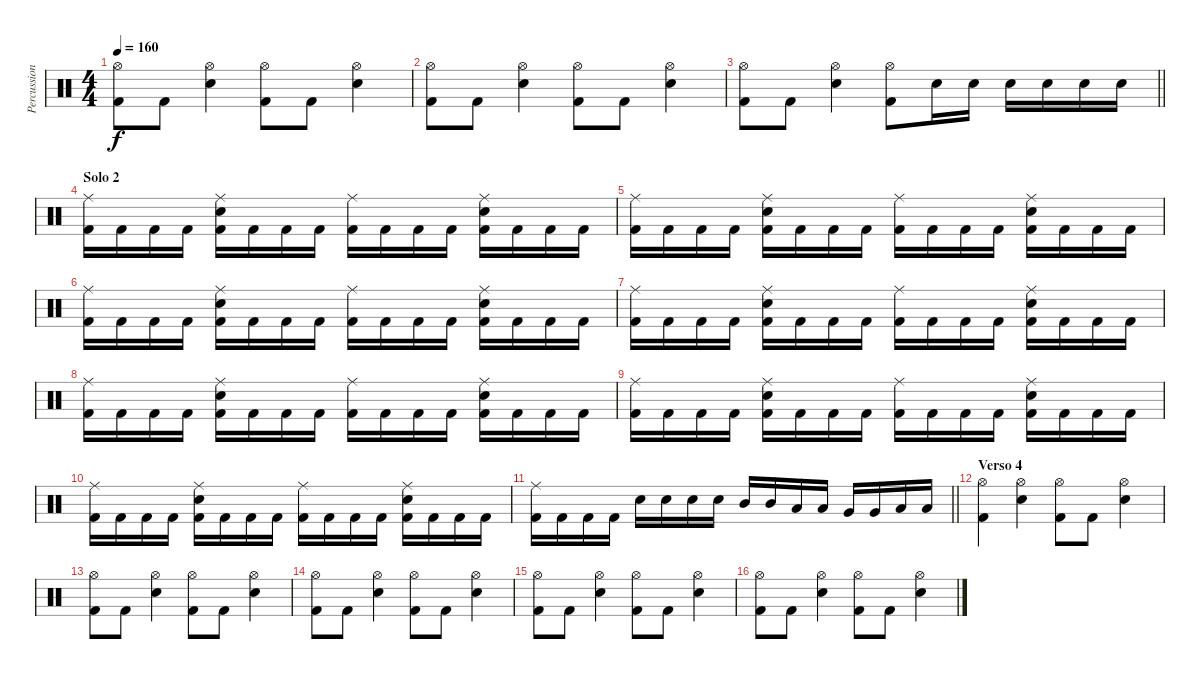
\track ("Percussion" "Percussion") {instrument percussion}
\staff {score}
\articulation defaults
\ts (4 4)
\tempo 160
\clef neutral
\ks c
("Hi-Hat (open)" "Kick (hit) 2").8{dy f} "Kick (hit) 2".8 ("Hi-Hat (open)" "Snare (hit) 2").4 ("Hi-Hat (open)" "Kick (hit) 2").8 "Kick (hit) 2".8 ("Hi-Hat (open)" "Snare (hit) 2").4 |
("Hi-Hat (open)" "Kick (hit) 2").8 "Kick (hit) 2".8 ("Hi-Hat (open)" "Snare (hit) 2").4 ("Hi-Hat (open)" "Kick (hit) 2").8 "Kick (hit) 2".8 ("Hi-Hat (open)" "Snare (hit) 2").4 |
\barLineRight lightlight
("Hi-Hat (open)" "Kick (hit) 2").8 "Kick (hit) 2".8 ("Hi-Hat (open)" "Snare (hit) 2").4 ("Hi-Hat (open)" "Kick (hit) 2").8 "Snare (hit) 2".16 "Snare (hit) 2".16 "Snare (hit) 2".16 "Snare (hit) 2".16 "Snare (hit) 2".16 "Snare (hit) 2".16 |
\section ("" "Solo 2")
("Ride (middle)" "Kick (hit) 2").16 "Kick (hit) 2".16 "Kick (hit) 2".16 "Kick (hit) 2".16 ("Ride (middle)" "Snare (hit) 2" "Kick (hit) 2").16 "Kick (hit) 2".16 "Kick (hit) 2".16 "Kick (hit) 2".16 ("Ride (middle)" "Kick (hit) 2").16 "Kick (hit) 2".16 "Kick (hit) 2".16 "Kick (hit) 2".16 ("Ride (middle)" "Snare (hit) 2" "Kick (hit) 2").16 "Kick (hit) 2".16 "Kick (hit) 2".16 "Kick (hit) 2".16 |
("Ride (middle)" "Kick (hit) 2").16 "Kick (hit) 2".16 "Kick (hit) 2".16 "Kick (hit) 2".16 ("Ride (middle)" "Snare (hit) 2" "Kick (hit) 2").16 "Kick (hit) 2".16 "Kick (hit) 2".16 "Kick (hit) 2".16 ("Ride (middle)" "Kick (hit) 2").16 "Kick (hit) 2".16 "Kick (hit) 2".16 "Kick (hit) 2".16 ("Ride (middle)" "Snare (hit) 2" "Kick (hit) 2").16 "Kick (hit) 2".16 "Kick (hit) 2".16 "Kick (hit) 2".16 |
("Ride (middle)" "Kick (hit) 2").16 "Kick (hit) 2".16 "Kick (hit) 2".16 "Kick (hit) 2".16 ("Ride (middle)" "Snare (hit) 2" "Kick (hit) 2").16 "Kick (hit) 2".16 "Kick (hit) 2".16 "Kick (hit) 2".16 ("Ride (middle)" "Kick (hit) 2").16 "Kick (hit) 2".16 "Kick (hit) 2".16 "Kick (hit) 2".16 ("Ride (middle)" "Snare (hit) 2" "Kick (hit) 2").16 "Kick (hit) 2".16 "Kick (hit) 2".16 "Kick (hit) 2".16 |
("Ride (middle)" "Kick (hit) 2").16 "Kick (hit) 2".16 "Kick (hit) 2".16 "Kick (hit) 2".16 ("Ride (middle)" "Snare (hit) 2" "Kick (hit) 2").16 "Kick (hit) 2".16 "Kick (hit) 2".16 "Kick (hit) 2".16 ("Ride (middle)" "Kick (hit) 2").16 "Kick (hit) 2".16 "Kick (hit) 2".16 "Kick (hit) 2".16 ("Ride (middle)" "Snare (hit) 2" "Kick (hit) 2").16 "Kick (hit) 2".16 "Kick (hit) 2".16 "Kick (hit) 2".16 |
("Ride (middle)" "Kick (hit) 2").16 "Kick (hit) 2".16 "Kick (hit) 2".16 "Kick (hit) 2".16 ("Ride (middle)" "Snare (hit) 2" "Kick (hit) 2").16 "Kick (hit) 2".16 "Kick (hit) 2".16 "Kick (hit) 2".16 ("Ride (middle)" "Kick (hit) 2").16 "Kick (hit) 2".16 "Kick (hit) 2".16 "Kick (hit) 2".16 ("Ride (middle)" "Snare (hit) 2" "Kick (hit) 2").16 "Kick (hit) 2".16 "Kick (hit) 2".16 "Kick (hit) 2".16 |
("Ride (middle)" "Kick (hit) 2").16 "Kick (hit) 2".16 "Kick (hit) 2".16 "Kick (hit) 2".16 ("Ride (middle)" "Snare (hit) 2" "Kick (hit) 2").16 "Kick (hit) 2".16 "Kick (hit) 2".16 "Kick (hit) 2".16 ("Ride (middle)" "Kick (hit) 2").16 "Kick (hit) 2".16 "Kick (hit) 2".16 "Kick (hit) 2".16 ("Ride (middle)" "Snare (hit) 2" "Kick (hit) 2").16 "Kick (hit) 2".16 "Kick (hit) 2".16 "Kick (hit) 2".16 |
("Ride (middle)" "Kick (hit) 2").16 "Kick (hit) 2".16 "Kick (hit) 2".16 "Kick (hit) 2".16 ("Ride (middle)" "Snare (hit) 2" "Kick (hit) 2").16 "Kick (hit) 2".16 "Kick (hit) 2".16 "Kick (hit) 2".16 ("Ride (middle)" "Kick (hit) 2").16 "Kick (hit) 2".16 "Kick (hit) 2".16 "Kick (hit) 2".16 ("Ride (middle)" "Snare (hit) 2" "Kick (hit) 2").16 "Kick (hit) 2".16 "Kick (hit) 2".16 "Kick (hit) 2".16 |
\barLineRight lightlight
("Ride (middle)" "Kick (hit) 2").16 "Kick (hit) 2".16 "Kick (hit) 2".16 "Kick (hit) 2".16 "Snare (hit) 2".16 "Snare (hit) 2".16 "Snare (hit) 2".16 "Snare (hit) 2".16 "Mid Tom (hit)".16 "Mid Tom (hit)".16 "Low Tom (hit)".16 "Low Tom (hit)".16 "Very Low Tom (hit)".16 "Very Low Tom (hit)".16 "Low Floor Tom (hit)".16 "Low Floor Tom (hit)".16 |
\section ("" "Verso 4")
("Hi-Hat (open)" "Kick (hit) 2").4 ("Hi-Hat (open)" "Snare (hit) 2").4 ("Hi-Hat (open)" "Kick (hit) 2").8 "Kick (hit) 2".8 ("Hi-Hat (open)" "Snare (hit) 2").4 |
("Hi-Hat (open)" "Kick (hit) 2").8 "Kick (hit) 2".8 ("Hi-Hat (open)" "Snare (hit) 2").4 ("Hi-Hat (open)" "Kick (hit) 2").8 "Kick (hit) 2".8 ("Hi-Hat (open)" "Snare (hit) 2").4 |
("Hi-Hat (open)" "Kick (hit) 2").8 "Kick (hit) 2".8 ("Hi-Hat (open)" "Snare (hit) 2").4 ("Hi-Hat (open)" "Kick (hit) 2").8 "Kick (hit) 2".8 ("Hi-Hat (open)" "Snare (hit) 2").4 |
("Hi-Hat (open)" "Kick (hit) 2").8 "Kick (hit) 2".8 ("Hi-Hat (open)" "Snare (hit) 2").4 ("Hi-Hat (open)" "Kick (hit) 2").8 "Kick (hit) 2".8 ("Hi-Hat (open)" "Snare (hit) 2").4 |
("Hi-Hat (open)" "Kick (hit) 2").8 "Kick (hit) 2".8 ("Hi-Hat (open)" "Snare (hit) 2").4 ("Hi-Hat (open)" "Kick (hit) 2").8 "Kick (hit) 2".8 ("Hi-Hat (open)" "Snare (hit) 2").4
